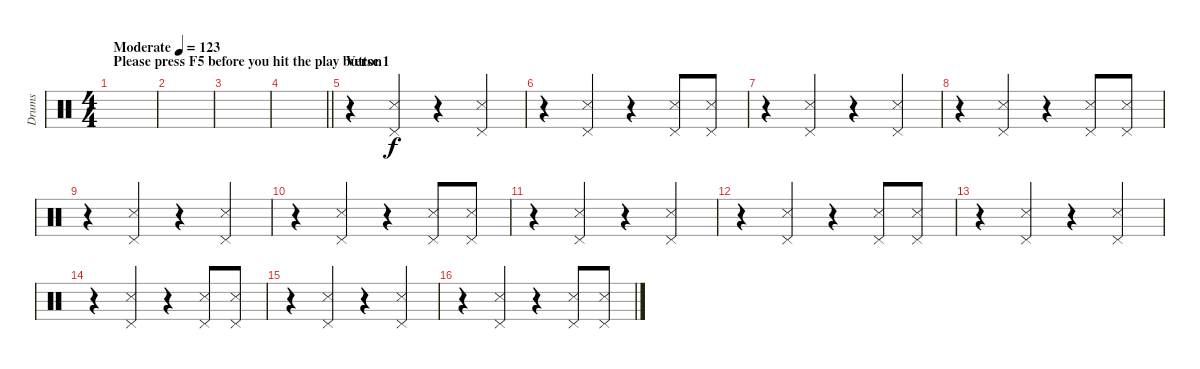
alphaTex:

\track ("Drums" "Drums") {instrument percussion}
\staff {score}
\articulation defaults
\ts (4 4)
\section ("" "Please press F5 before you hit the play button")
\tempo (123 "Moderate")
\clef neutral
\ks c
|
|
|
\barLineRight lightlight
|
\section ("" "Verse 1")
r.4 ("Snare (side stick) 3" "Pedal Hi-Hat (hit)").4 r.4 ("Snare (side stick) 3" "Pedal Hi-Hat (hit)").4 |
r.4 ("Snare (side stick) 3" "Pedal Hi-Hat (hit)").4 r.4 ("Snare (side stick) 3" "Pedal Hi-Hat (hit)").8 ("Snare (side stick) 3" "Pedal Hi-Hat (hit)").8 |
r.4 ("Snare (side stick) 3" "Pedal Hi-Hat (hit)").4 r.4 ("Snare (side stick) 3" "Pedal Hi-Hat (hit)").4 |
r.4 ("Snare (side stick) 3" "Pedal Hi-Hat (hit)").4 r.4 ("Snare (side stick) 3" "Pedal Hi-Hat (hit)").8 ("Snare (side stick) 3" "Pedal Hi-Hat (hit)").8 |
r.4 ("Snare (side stick) 3" "Pedal Hi-Hat (hit)").4 r.4 ("Snare (side stick) 3" "Pedal Hi-Hat (hit)").4 |
r.4 ("Snare (side stick) 3" "Pedal Hi-Hat (hit)").4 r.4 ("Snare (side stick) 3" "Pedal Hi-Hat (hit)").8 ("Snare (side stick) 3" "Pedal Hi-Hat (hit)").8 |
r.4 ("Snare (side stick) 3" "Pedal Hi-Hat (hit)").4 r.4 ("Snare (side stick) 3" "Pedal Hi-Hat (hit)").4 |
r.4 ("Snare (side stick) 3" "Pedal Hi-Hat (hit)").4 r.4 ("Snare (side stick) 3" "Pedal Hi-Hat (hit)").8 ("Snare (side stick) 3" "Pedal Hi-Hat (hit)").8 |
r.4 ("Snare (side stick) 3" "Pedal Hi-Hat (hit)").4 r.4 ("Snare (side stick) 3" "Pedal Hi-Hat (hit)").4 |
r.4 ("Snare (side stick) 3" "Pedal Hi-Hat (hit)").4 r.4 ("Snare (side stick) 3" "Pedal Hi-Hat (hit)").8 ("Snare (side stick) 3" "Pedal Hi-Hat (hit)").8 |
r.4 ("Snare (side stick) 3" "Pedal Hi-Hat (hit)").4 r.4 ("Snare (side stick) 3" "Pedal Hi-Hat (hit)").4 |
r.4 ("Snare (side stick) 3" "Pedal Hi-Hat (hit)").4 r.4 ("Snare (side stick) 3" "Pedal Hi-Hat (hit)").8 ("Snare (side stick) 3" "Pedal Hi-Hat (hit)").8
